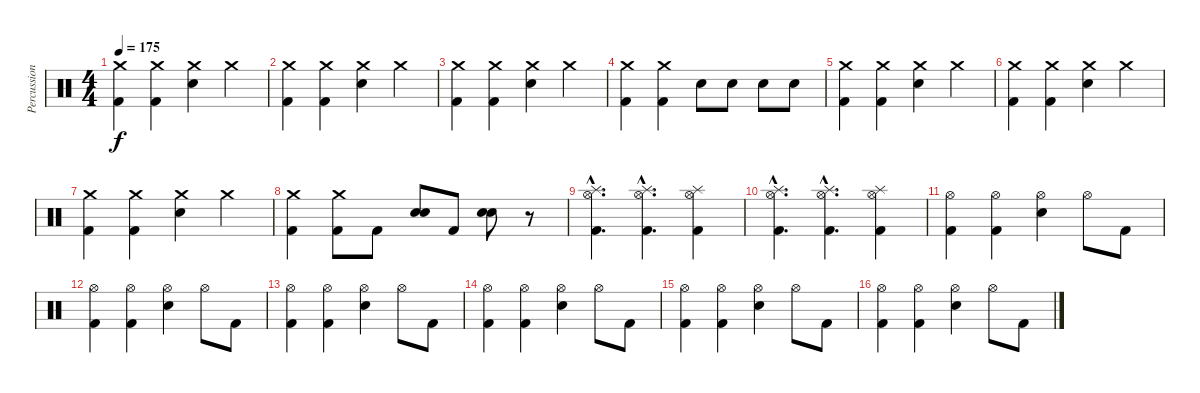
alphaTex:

\track ("Percussions" "Percussion") {instrument percussion}
\staff {score}
\articulation defaults
\ts (4 4)
\tempo 175
\clef neutral
\ks c
("Crash medium (hit)" "Kick (hit) 2").4{dy f} ("Crash medium (hit)" "Kick (hit) 2").4 ("Crash medium (hit)" "Electric Snare (hit)").4 "Crash medium (hit)".4 |
("Crash medium (hit)" "Kick (hit) 2").4 ("Crash medium (hit)" "Kick (hit) 2").4 ("Crash medium (hit)" "Electric Snare (hit)").4 "Crash medium (hit)".4 |
("Crash medium (hit)" "Kick (hit) 2").4 ("Crash medium (hit)" "Kick (hit) 2").4 ("Crash medium (hit)" "Electric Snare (hit)").4 "Crash medium (hit)".4 |
("Crash medium (hit)" "Kick (hit) 2").4 ("Crash medium (hit)" "Kick (hit) 2").4 "Electric Snare (hit)".8 "Electric Snare (hit)".8 "Electric Snare (hit)".8 "Electric Snare (hit)".8 |
("Crash medium (hit)" "Kick (hit) 2").4 ("Crash medium (hit)" "Kick (hit) 2").4 ("Crash medium (hit)" "Electric Snare (hit)").4 "Crash medium (hit)".4 |
("Crash medium (hit)" "Kick (hit) 2").4 ("Crash medium (hit)" "Kick (hit) 2").4 ("Crash medium (hit)" "Electric Snare (hit)").4 "Crash medium (hit)".4 |
("Crash medium (hit)" "Kick (hit) 2").4 ("Crash medium (hit)" "Kick (hit) 2").4 ("Crash medium (hit)" "Electric Snare (hit)").4 "Crash medium (hit)".4 |
("Crash medium (hit)" "Kick (hit) 2").4 ("Crash medium (hit)" "Kick (hit) 2").8 "Kick (hit) 2".8 ("Electric Snare (hit)" "Electric Snare (hit)").8{bd 480} "Kick (hit) 2".8 ("Electric Snare (hit)" "Electric Snare (hit)").8{bd 480} r.8 |
("Hi-Hat (open)"{hac} "Splash (hit)"{hac} "Kick (hit) 2"{hac}).4{d} ("Hi-Hat (open)"{hac} "Splash (hit)"{hac} "Kick (hit) 2"{hac}).4{d} ("Hi-Hat (open)" "Splash (hit)" "Kick (hit) 2").4 |
("Hi-Hat (open)"{hac} "Splash (hit)"{hac} "Kick (hit) 2"{hac}).4{d} ("Hi-Hat (open)"{hac} "Splash (hit)"{hac} "Kick (hit) 2"{hac}).4{d} ("Hi-Hat (open)" "Splash (hit)" "Kick (hit) 2").4 |
("Hi-Hat (open)" "Kick (hit) 2").4 ("Hi-Hat (open)" "Kick (hit) 2").4 ("Hi-Hat (open)" "Electric Snare (hit)").4 "Hi-Hat (open)".8 "Kick (hit) 2".8 |
("Hi-Hat (open)" "Kick (hit) 2").4 ("Hi-Hat (open)" "Kick (hit) 2").4 ("Hi-Hat (open)" "Electric Snare (hit)").4 "Hi-Hat (open)".8 "Kick (hit) 2".8 |
("Hi-Hat (open)" "Kick (hit) 2").4 ("Hi-Hat (open)" "Kick (hit) 2").4 ("Hi-Hat (open)" "Electric Snare (hit)").4 "Hi-Hat (open)".8 "Kick (hit) 2".8 |
("Hi-Hat (open)" "Kick (hit) 2").4 ("Hi-Hat (open)" "Kick (hit) 2").4 ("Hi-Hat (open)" "Electric Snare (hit)").4 "Hi-Hat (open)".8 "Kick (hit) 2".8 |
("Hi-Hat (open)" "Kick (hit) 2").4 ("Hi-Hat (open)" "Kick (hit) 2").4 ("Hi-Hat (open)" "Electric Snare (hit)").4 "Hi-Hat (open)".8 "Kick (hit) 2".8 |
("Hi-Hat (open)" "Kick (hit) 2").4 ("Hi-Hat (open)" "Kick (hit) 2").4 ("Hi-Hat (open)" "Electric Snare (hit)").4 "Hi-Hat (open)".8 "Kick (hit) 2".8
